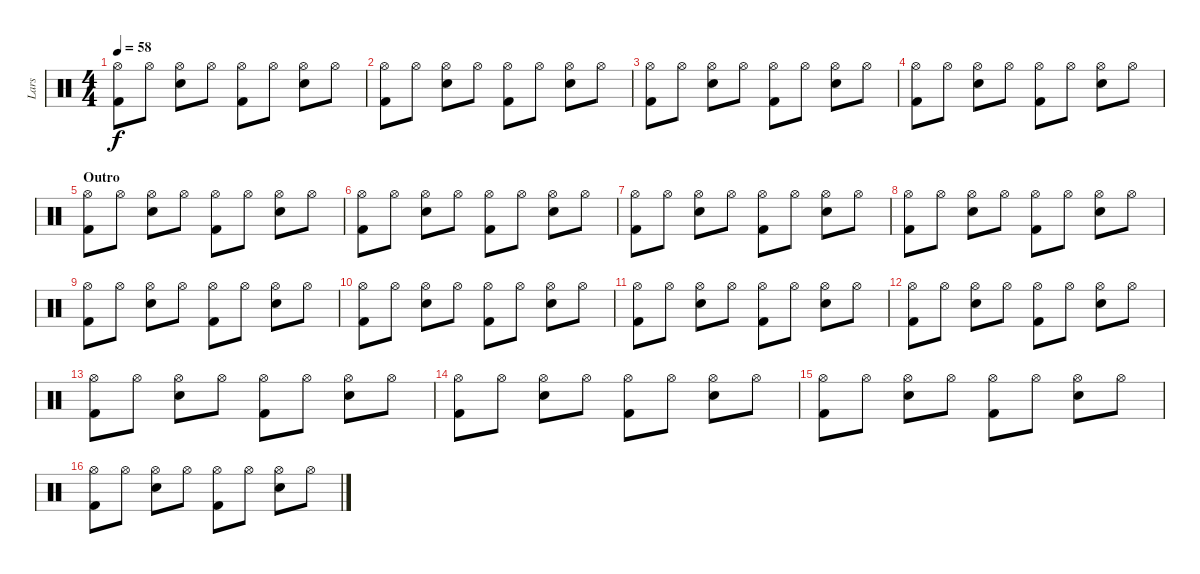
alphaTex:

\track ("Lars " "Lars ") {instrument percussion}
\staff {score}
\articulation defaults
\ts (4 4)
\tempo 58
\clef neutral
\ks c
("Kick (hit) 2" "Hi-Hat (open)").8{dy f} "Hi-Hat (open)".8 ("Snare (hit) 2" "Hi-Hat (open)").8 "Hi-Hat (open)".8 ("Kick (hit) 2" "Hi-Hat (open)").8 "Hi-Hat (open)".8 ("Snare (hit) 2" "Hi-Hat (open)").8 "Hi-Hat (open)".8 |
("Kick (hit) 2" "Hi-Hat (open)").8 "Hi-Hat (open)".8 ("Snare (hit) 2" "Hi-Hat (open)").8 "Hi-Hat (open)".8 ("Kick (hit) 2" "Hi-Hat (open)").8 "Hi-Hat (open)".8 ("Snare (hit) 2" "Hi-Hat (open)").8 "Hi-Hat (open)".8 |
("Kick (hit) 2" "Hi-Hat (open)").8 "Hi-Hat (open)".8 ("Snare (hit) 2" "Hi-Hat (open)").8 "Hi-Hat (open)".8 ("Kick (hit) 2" "Hi-Hat (open)").8 "Hi-Hat (open)".8 ("Snare (hit) 2" "Hi-Hat (open)").8 "Hi-Hat (open)".8 |
("Kick (hit) 2" "Hi-Hat (open)").8 "Hi-Hat (open)".8 ("Snare (hit) 2" "Hi-Hat (open)").8 "Hi-Hat (open)".8 ("Kick (hit) 2" "Hi-Hat (open)").8 "Hi-Hat (open)".8 ("Snare (hit) 2" "Hi-Hat (open)").8 "Hi-Hat (open)".8 |
\section ("" "Outro")
("Kick (hit) 2" "Hi-Hat (open)").8 "Hi-Hat (open)".8 ("Snare (hit) 2" "Hi-Hat (open)").8 "Hi-Hat (open)".8 ("Kick (hit) 2" "Hi-Hat (open)").8 "Hi-Hat (open)".8 ("Snare (hit) 2" "Hi-Hat (open)").8 "Hi-Hat (open)".8 |
("Kick (hit) 2" "Hi-Hat (open)").8 "Hi-Hat (open)".8 ("Snare (hit) 2" "Hi-Hat (open)").8 "Hi-Hat (open)".8 ("Kick (hit) 2" "Hi-Hat (open)").8 "Hi-Hat (open)".8 ("Snare (hit) 2" "Hi-Hat (open)").8 "Hi-Hat (open)".8 |
("Kick (hit) 2" "Hi-Hat (open)").8 "Hi-Hat (open)".8 ("Snare (hit) 2" "Hi-Hat (open)").8 "Hi-Hat (open)".8 ("Kick (hit) 2" "Hi-Hat (open)").8 "Hi-Hat (open)".8 ("Snare (hit) 2" "Hi-Hat (open)").8 "Hi-Hat (open)".8 |
("Kick (hit) 2" "Hi-Hat (open)").8 "Hi-Hat (open)".8 ("Snare (hit) 2" "Hi-Hat (open)").8 "Hi-Hat (open)".8 ("Kick (hit) 2" "Hi-Hat (open)").8 "Hi-Hat (open)".8 ("Snare (hit) 2" "Hi-Hat (open)").8 "Hi-Hat (open)".8 |
("Kick (hit) 2" "Hi-Hat (open)").8 "Hi-Hat (open)".8 ("Snare (hit) 2" "Hi-Hat (open)").8 "Hi-Hat (open)".8 ("Kick (hit) 2" "Hi-Hat (open)").8 "Hi-Hat (open)".8 ("Snare (hit) 2" "Hi-Hat (open)").8 "Hi-Hat (open)".8 |
("Kick (hit) 2" "Hi-Hat (open)").8 "Hi-Hat (open)".8 ("Snare (hit) 2" "Hi-Hat (open)").8 "Hi-Hat (open)".8 ("Kick (hit) 2" "Hi-Hat (open)").8 "Hi-Hat (open)".8 ("Snare (hit) 2" "Hi-Hat (open)").8 "Hi-Hat (open)".8 |
("Kick (hit) 2" "Hi-Hat (open)").8 "Hi-Hat (open)".8 ("Snare (hit) 2" "Hi-Hat (open)").8 "Hi-Hat (open)".8 ("Kick (hit) 2" "Hi-Hat (open)").8 "Hi-Hat (open)".8 ("Snare (hit) 2" "Hi-Hat (open)").8 "Hi-Hat (open)".8 |
("Kick (hit) 2" "Hi-Hat (open)").8 "Hi-Hat (open)".8 ("Snare (hit) 2" "Hi-Hat (open)").8 "Hi-Hat (open)".8 ("Kick (hit) 2" "Hi-Hat (open)").8 "Hi-Hat (open)".8 ("Snare (hit) 2" "Hi-Hat (open)").8 "Hi-Hat (open)".8 |
("Kick (hit) 2" "Hi-Hat (open)").8 "Hi-Hat (open)".8 ("Snare (hit) 2" "Hi-Hat (open)").8 "Hi-Hat (open)".8 ("Kick (hit) 2" "Hi-Hat (open)").8 "Hi-Hat (open)".8 ("Snare (hit) 2" "Hi-Hat (open)").8 "Hi-Hat (open)".8 |
("Kick (hit) 2" "Hi-Hat (open)").8 "Hi-Hat (open)".8 ("Snare (hit) 2" "Hi-Hat (open)").8 "Hi-Hat (open)".8 ("Kick (hit) 2" "Hi-Hat (open)").8 "Hi-Hat (open)".8 ("Snare (hit) 2" "Hi-Hat (open)").8 "Hi-Hat (open)".8 |
("Kick (hit) 2" "Hi-Hat (open)").8 "Hi-Hat (open)".8 ("Snare (hit) 2" "Hi-Hat (open)").8 "Hi-Hat (open)".8 ("Kick (hit) 2" "Hi-Hat (open)").8 "Hi-Hat (open)".8 ("Snare (hit) 2" "Hi-Hat (open)").8 "Hi-Hat (open)".8 |
("Kick (hit) 2" "Hi-Hat (open)").8 "Hi-Hat (open)".8 ("Snare (hit) 2" "Hi-Hat (open)").8 "Hi-Hat (open)".8 ("Kick (hit) 2" "Hi-Hat (open)").8 "Hi-Hat (open)".8 ("Snare (hit) 2" "Hi-Hat (open)").8 "Hi-Hat (open)".8
